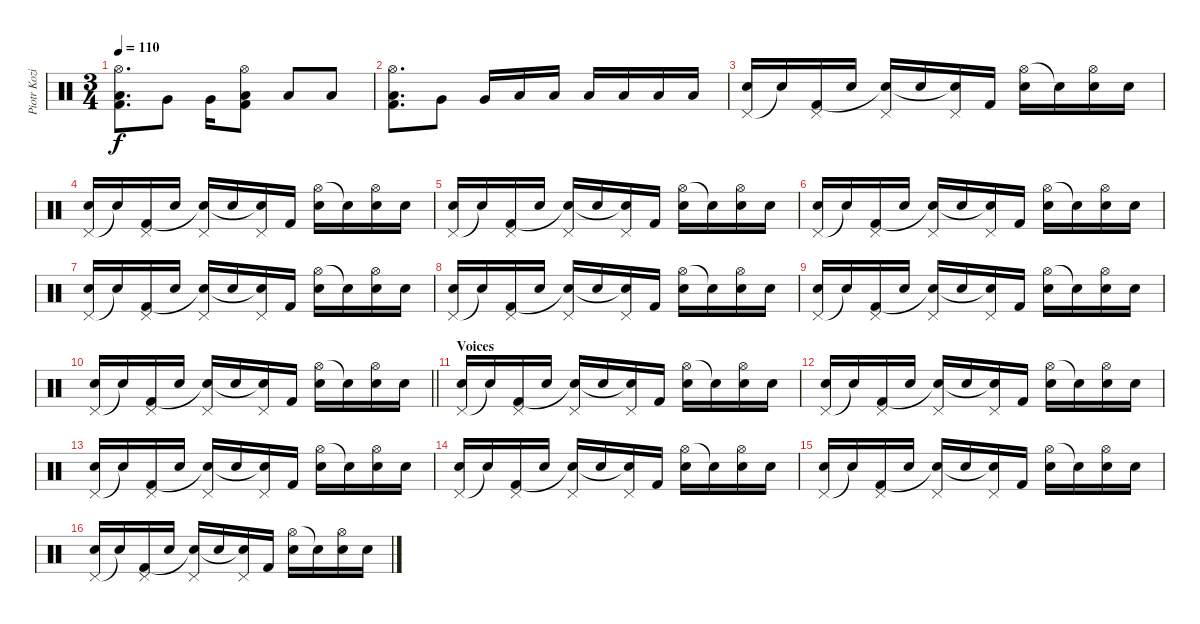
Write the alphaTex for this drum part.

\track ("Piotr Kozieradzki" "Piotr Kozi") {instrument percussion}
\staff {score}
\articulation defaults
\ts (3 4)
\tempo 110
\clef neutral
\ks c
("Hi-Hat (open)" "Low Tom (hit)" "Kick (hit) 2").8{d dy f} "Very Low Tom (hit)".8 "Very Low Tom (hit)".16 ("Hi-Hat (open)" "Low Tom (hit)" "Kick (hit) 2").8 "Low Tom (hit)".8 "Low Tom (hit)".8 |
("Hi-Hat (open)" "Low Tom (hit)" "Kick (hit) 2").8{d} "Very Low Tom (hit)".8 "Very Low Tom (hit)".16 "Low Tom (hit)".16 "Low Tom (hit)".16 "Low Tom (hit)".16 "Low Tom (hit)".16 "Low Tom (hit)".16 "Low Tom (hit)".16 |
("Pedal Hi-Hat (hit)" "Electric Snare (hit)").16 "Snare (hit)"{t}.16 ("Pedal Hi-Hat (hit)" "Kick (hit) 2").16 "Electric Snare (hit)".16 ("Pedal Hi-Hat (hit)" "Snare (hit)"{t}).16 "Electric Snare (hit)".16 ("Pedal Hi-Hat (hit)" "Snare (hit)"{t}).16 "Kick (hit) 2".16 ("Hi-Hat (open)" "Electric Snare (hit)").16 "Snare (hit)"{t}.16 ("Hi-Hat (open)" "Electric Snare (hit)").16 "Electric Snare (hit)".16 |
("Pedal Hi-Hat (hit)" "Electric Snare (hit)").16 "Snare (hit)"{t}.16 ("Pedal Hi-Hat (hit)" "Kick (hit) 2").16 "Electric Snare (hit)".16 ("Pedal Hi-Hat (hit)" "Snare (hit)"{t}).16 "Electric Snare (hit)".16 ("Pedal Hi-Hat (hit)" "Snare (hit)"{t}).16 "Kick (hit) 2".16 ("Hi-Hat (open)" "Electric Snare (hit)").16 "Snare (hit)"{t}.16 ("Hi-Hat (open)" "Electric Snare (hit)").16 "Electric Snare (hit)".16 |
("Pedal Hi-Hat (hit)" "Electric Snare (hit)").16 "Snare (hit)"{t}.16 ("Pedal Hi-Hat (hit)" "Kick (hit) 2").16 "Electric Snare (hit)".16 ("Pedal Hi-Hat (hit)" "Snare (hit)"{t}).16 "Electric Snare (hit)".16 ("Pedal Hi-Hat (hit)" "Snare (hit)"{t}).16 "Kick (hit) 2".16 ("Hi-Hat (open)" "Electric Snare (hit)").16 "Snare (hit)"{t}.16 ("Hi-Hat (open)" "Electric Snare (hit)").16 "Electric Snare (hit)".16 |
("Pedal Hi-Hat (hit)" "Electric Snare (hit)").16 "Snare (hit)"{t}.16 ("Pedal Hi-Hat (hit)" "Kick (hit) 2").16 "Electric Snare (hit)".16 ("Pedal Hi-Hat (hit)" "Snare (hit)"{t}).16 "Electric Snare (hit)".16 ("Pedal Hi-Hat (hit)" "Snare (hit)"{t}).16 "Kick (hit) 2".16 ("Hi-Hat (open)" "Electric Snare (hit)").16 "Snare (hit)"{t}.16 ("Hi-Hat (open)" "Electric Snare (hit)").16 "Electric Snare (hit)".16 |
("Pedal Hi-Hat (hit)" "Electric Snare (hit)").16 "Snare (hit)"{t}.16 ("Pedal Hi-Hat (hit)" "Kick (hit) 2").16 "Electric Snare (hit)".16 ("Pedal Hi-Hat (hit)" "Snare (hit)"{t}).16 "Electric Snare (hit)".16 ("Pedal Hi-Hat (hit)" "Snare (hit)"{t}).16 "Kick (hit) 2".16 ("Hi-Hat (open)" "Electric Snare (hit)").16 "Snare (hit)"{t}.16 ("Hi-Hat (open)" "Electric Snare (hit)").16 "Electric Snare (hit)".16 |
("Pedal Hi-Hat (hit)" "Electric Snare (hit)").16 "Snare (hit)"{t}.16 ("Pedal Hi-Hat (hit)" "Kick (hit) 2").16 "Electric Snare (hit)".16 ("Pedal Hi-Hat (hit)" "Snare (hit)"{t}).16 "Electric Snare (hit)".16 ("Pedal Hi-Hat (hit)" "Snare (hit)"{t}).16 "Kick (hit) 2".16 ("Hi-Hat (open)" "Electric Snare (hit)").16 "Snare (hit)"{t}.16 ("Hi-Hat (open)" "Electric Snare (hit)").16 "Electric Snare (hit)".16 |
("Pedal Hi-Hat (hit)" "Electric Snare (hit)").16 "Snare (hit)"{t}.16 ("Pedal Hi-Hat (hit)" "Kick (hit) 2").16 "Electric Snare (hit)".16 ("Pedal Hi-Hat (hit)" "Snare (hit)"{t}).16 "Electric Snare (hit)".16 ("Pedal Hi-Hat (hit)" "Snare (hit)"{t}).16 "Kick (hit) 2".16 ("Hi-Hat (open)" "Electric Snare (hit)").16 "Snare (hit)"{t}.16 ("Hi-Hat (open)" "Electric Snare (hit)").16 "Electric Snare (hit)".16 |
\barLineRight lightlight
("Pedal Hi-Hat (hit)" "Electric Snare (hit)").16 "Snare (hit)"{t}.16 ("Pedal Hi-Hat (hit)" "Kick (hit) 2").16 "Electric Snare (hit)".16 ("Pedal Hi-Hat (hit)" "Snare (hit)"{t}).16 "Electric Snare (hit)".16 ("Pedal Hi-Hat (hit)" "Snare (hit)"{t}).16 "Kick (hit) 2".16 ("Hi-Hat (open)" "Electric Snare (hit)").16 "Snare (hit)"{t}.16 ("Hi-Hat (open)" "Electric Snare (hit)").16 "Electric Snare (hit)".16 |
\section ("" "Voices")
("Pedal Hi-Hat (hit)" "Electric Snare (hit)").16 "Snare (hit)"{t}.16 ("Pedal Hi-Hat (hit)" "Kick (hit) 2").16 "Electric Snare (hit)".16 ("Pedal Hi-Hat (hit)" "Snare (hit)"{t}).16 "Electric Snare (hit)".16 ("Pedal Hi-Hat (hit)" "Snare (hit)"{t}).16 "Kick (hit) 2".16 ("Hi-Hat (open)" "Electric Snare (hit)").16 "Snare (hit)"{t}.16 ("Hi-Hat (open)" "Electric Snare (hit)").16 "Electric Snare (hit)".16 |
("Pedal Hi-Hat (hit)" "Electric Snare (hit)").16 "Snare (hit)"{t}.16 ("Pedal Hi-Hat (hit)" "Kick (hit) 2").16 "Electric Snare (hit)".16 ("Pedal Hi-Hat (hit)" "Snare (hit)"{t}).16 "Electric Snare (hit)".16 ("Pedal Hi-Hat (hit)" "Snare (hit)"{t}).16 "Kick (hit) 2".16 ("Hi-Hat (open)" "Electric Snare (hit)").16 "Snare (hit)"{t}.16 ("Hi-Hat (open)" "Electric Snare (hit)").16 "Electric Snare (hit)".16 |
("Pedal Hi-Hat (hit)" "Electric Snare (hit)").16 "Snare (hit)"{t}.16 ("Pedal Hi-Hat (hit)" "Kick (hit) 2").16 "Electric Snare (hit)".16 ("Pedal Hi-Hat (hit)" "Snare (hit)"{t}).16 "Electric Snare (hit)".16 ("Pedal Hi-Hat (hit)" "Snare (hit)"{t}).16 "Kick (hit) 2".16 ("Hi-Hat (open)" "Electric Snare (hit)").16 "Snare (hit)"{t}.16 ("Hi-Hat (open)" "Electric Snare (hit)").16 "Electric Snare (hit)".16 |
("Pedal Hi-Hat (hit)" "Electric Snare (hit)").16 "Snare (hit)"{t}.16 ("Pedal Hi-Hat (hit)" "Kick (hit) 2").16 "Electric Snare (hit)".16 ("Pedal Hi-Hat (hit)" "Snare (hit)"{t}).16 "Electric Snare (hit)".16 ("Pedal Hi-Hat (hit)" "Snare (hit)"{t}).16 "Kick (hit) 2".16 ("Hi-Hat (open)" "Electric Snare (hit)").16 "Snare (hit)"{t}.16 ("Hi-Hat (open)" "Electric Snare (hit)").16 "Electric Snare (hit)".16 |
("Pedal Hi-Hat (hit)" "Electric Snare (hit)").16 "Snare (hit)"{t}.16 ("Pedal Hi-Hat (hit)" "Kick (hit) 2").16 "Electric Snare (hit)".16 ("Pedal Hi-Hat (hit)" "Snare (hit)"{t}).16 "Electric Snare (hit)".16 ("Pedal Hi-Hat (hit)" "Snare (hit)"{t}).16 "Kick (hit) 2".16 ("Hi-Hat (open)" "Electric Snare (hit)").16 "Snare (hit)"{t}.16 ("Hi-Hat (open)" "Electric Snare (hit)").16 "Electric Snare (hit)".16 |
("Pedal Hi-Hat (hit)" "Electric Snare (hit)").16 "Snare (hit)"{t}.16 ("Pedal Hi-Hat (hit)" "Kick (hit) 2").16 "Electric Snare (hit)".16 ("Pedal Hi-Hat (hit)" "Snare (hit)"{t}).16 "Electric Snare (hit)".16 ("Pedal Hi-Hat (hit)" "Snare (hit)"{t}).16 "Kick (hit) 2".16 ("Hi-Hat (open)" "Electric Snare (hit)").16 "Snare (hit)"{t}.16 ("Hi-Hat (open)" "Electric Snare (hit)").16 "Electric Snare (hit)".16
